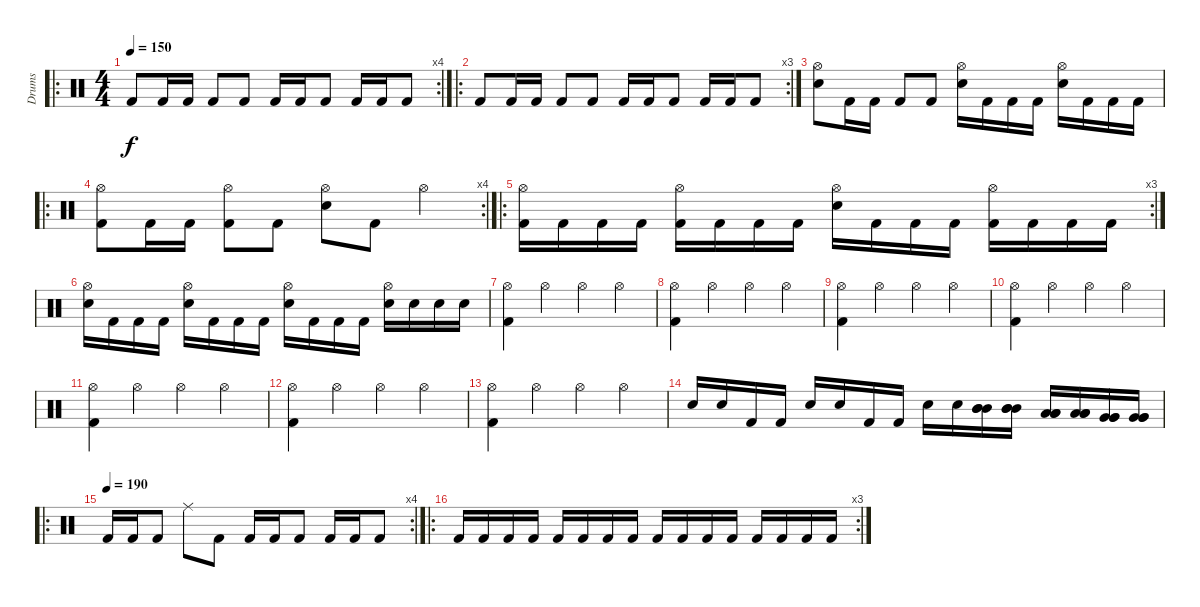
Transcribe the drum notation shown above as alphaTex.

\track ("Drums" "Drums") {instrument percussion}
\staff {score}
\articulation defaults
\ro
\rc 4
\ts (4 4)
\tempo 150
\clef neutral
\ks c "Kick (hit) 2".8{dy f} "Kick (hit) 2".16 "Kick (hit) 2".16 "Kick (hit) 2".8 "Kick (hit) 2".8 "Kick (hit) 2".16 "Kick (hit) 2".16 "Kick (hit) 2".8 "Kick (hit) 2".16 "Kick (hit) 2".16 "Kick (hit) 2".8
|
\ro
\rc 3 "Kick (hit) 2".8 "Kick (hit) 2".16 "Kick (hit) 2".16 "Kick (hit) 2".8 "Kick (hit) 2".8 "Kick (hit) 2".16 "Kick (hit) 2".16 "Kick (hit) 2".8 "Kick (hit) 2".16 "Kick (hit) 2".16 "Kick (hit) 2".8
|
("Hi-Hat (open)" "Electric Snare (hit)").8 "Kick (hit) 2".16 "Kick (hit) 2".16 "Kick (hit) 2".8 "Kick (hit) 2".8 ("Hi-Hat (open)" "Electric Snare (hit)").16 "Kick (hit) 2".16 "Kick (hit) 2".16 "Kick (hit) 2".16 ("Hi-Hat (open)" "Electric Snare (hit)").16 "Kick (hit) 2".16 "Kick (hit) 2".16 "Kick (hit) 2".16 |
\ro
\rc 4
("Hi-Hat (open)" "Kick (hit) 2").8 "Kick (hit) 2".16 "Kick (hit) 2".16 ("Hi-Hat (open)" "Kick (hit) 2").8 "Kick (hit) 2".8 ("Hi-Hat (open)" "Electric Snare (hit)").8 "Kick (hit) 2".8 "Hi-Hat (open)".4 |
\ro
\rc 3
("Hi-Hat (open)" "Kick (hit) 2").16 "Kick (hit) 2".16 "Kick (hit) 2".16 "Kick (hit) 2".16 ("Hi-Hat (open)" "Kick (hit) 2").16 "Kick (hit) 2".16 "Kick (hit) 2".16 "Kick (hit) 2".16 ("Hi-Hat (open)" "Electric Snare (hit)").16 "Kick (hit) 2".16 "Kick (hit) 2".16 "Kick (hit) 2".16 ("Hi-Hat (open)" "Kick (hit) 2").16 "Kick (hit) 2".16 "Kick (hit) 2".16 "Kick (hit) 2".16 |
("Hi-Hat (open)" "Electric Snare (hit)").16 "Kick (hit) 2".16 "Kick (hit) 2".16 "Kick (hit) 2".16 ("Hi-Hat (open)" "Electric Snare (hit)").16 "Kick (hit) 2".16 "Kick (hit) 2".16 "Kick (hit) 2".16 ("Hi-Hat (open)" "Electric Snare (hit)").16 "Kick (hit) 2".16 "Kick (hit) 2".16 "Kick (hit) 2".16 ("Hi-Hat (open)" "Electric Snare (hit)").16 "Electric Snare (hit)".16 "Electric Snare (hit)".16 "Electric Snare (hit)".16 |
("Hi-Hat (open)" "Kick (hit) 2").4 "Hi-Hat (open)".4 "Hi-Hat (open)".4 "Hi-Hat (open)".4 |
("Hi-Hat (open)" "Kick (hit) 2").4 "Hi-Hat (open)".4 "Hi-Hat (open)".4 "Hi-Hat (open)".4 |
("Hi-Hat (open)" "Kick (hit) 2").4 "Hi-Hat (open)".4 "Hi-Hat (open)".4 "Hi-Hat (open)".4 |
("Hi-Hat (open)" "Kick (hit) 2").4 "Hi-Hat (open)".4 "Hi-Hat (open)".4 "Hi-Hat (open)".4 |
("Hi-Hat (open)" "Kick (hit) 2").4 "Hi-Hat (open)".4 "Hi-Hat (open)".4 "Hi-Hat (open)".4 |
("Hi-Hat (open)" "Kick (hit) 2").4 "Hi-Hat (open)".4 "Hi-Hat (open)".4 "Hi-Hat (open)".4 |
("Hi-Hat (open)" "Kick (hit) 2").4 "Hi-Hat (open)".4 "Hi-Hat (open)".4 "Hi-Hat (open)".4 |
"Electric Snare (hit)".16 "Electric Snare (hit)".16 "Kick (hit) 2".16 "Kick (hit) 2".16 "Electric Snare (hit)".16 "Electric Snare (hit)".16 "Kick (hit) 2".16 "Kick (hit) 2".16 "Electric Snare (hit)".16 "Electric Snare (hit)".16 ("Mid Tom (hit)" "Mid Tom (hit)" "Mid Tom (hit)").16 ("Mid Tom (hit)" "Mid Tom (hit)" "Mid Tom (hit)").16 ("Low Tom (hit)" "Low Tom (hit)" "Low Tom (hit)").16 ("Low Tom (hit)" "Low Tom (hit)" "Low Tom (hit)").16 ("Very Low Tom (hit)" "Very Low Tom (hit)" "Very Low Tom (hit)").16 ("Very Low Tom (hit)" "Very Low Tom (hit)" "Very Low Tom (hit)").16 |
\ro
\rc 4
\tempo (190)
"Kick (hit) 2".16 "Kick (hit) 2".16 "Kick (hit) 2".8 "Ride (middle)".8 "Kick (hit) 2".8 "Kick (hit) 2".16 "Kick (hit) 2".16 "Kick (hit) 2".8 "Kick (hit) 2".16 "Kick (hit) 2".16 "Kick (hit) 2".8 |
\ro
\rc 3 "Kick (hit) 2".16 "Kick (hit) 2".16 "Kick (hit) 2".16 "Kick (hit) 2".16 "Kick (hit) 2".16 "Kick (hit) 2".16 "Kick (hit) 2".16 "Kick (hit) 2".16 "Kick (hit) 2".16 "Kick (hit) 2".16 "Kick (hit) 2".16 "Kick (hit) 2".16 "Kick (hit) 2".16 "Kick (hit) 2".16 "Kick (hit) 2".16 "Kick (hit) 2".16
